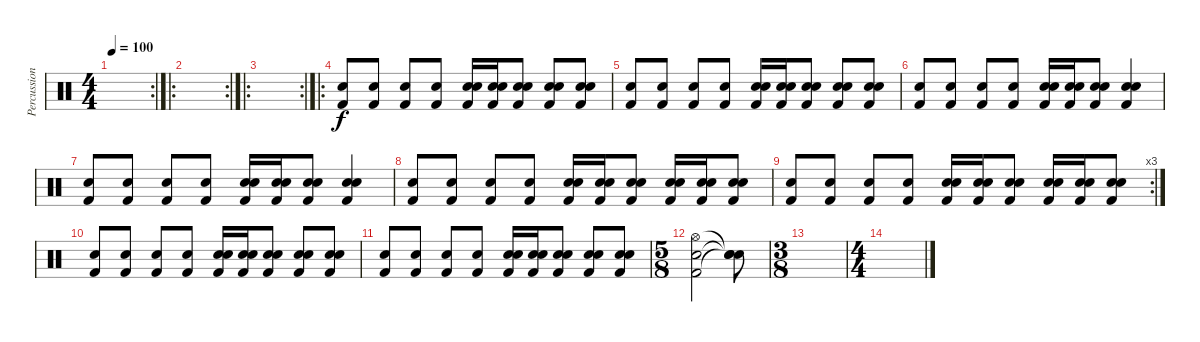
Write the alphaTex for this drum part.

\track ("Percussion" "Percussion") {instrument percussion}
\staff {score}
\articulation defaults
\rc 2
\ts (4 4)
\tempo 100
\clef neutral
\ks c
|
\ro
\rc 2
|
\ro
\rc 2
|
\ro
("Kick (hit) 2" "Snare (hit) 2").8 ("Kick (hit) 2" "Snare (hit) 2").8 ("Kick (hit) 2" "Snare (hit) 2").8 ("Kick (hit) 2" "Snare (hit) 2").8 ("Snare (hit) 2" "Electric Snare (hit)" "Kick (hit) 2").16 ("Snare (hit) 2" "Electric Snare (hit)" "Kick (hit) 2").16 ("Snare (hit) 2" "Electric Snare (hit)" "Kick (hit) 2").8 ("Snare (hit) 2" "Electric Snare (hit)" "Kick (hit) 2").8 ("Snare (hit) 2" "Electric Snare (hit)" "Kick (hit) 2").8 |
("Kick (hit) 2" "Snare (hit) 2").8 ("Kick (hit) 2" "Snare (hit) 2").8 ("Kick (hit) 2" "Snare (hit) 2").8 ("Kick (hit) 2" "Snare (hit) 2").8 ("Snare (hit) 2" "Electric Snare (hit)" "Kick (hit) 2").16 ("Snare (hit) 2" "Electric Snare (hit)" "Kick (hit) 2").16 ("Snare (hit) 2" "Electric Snare (hit)" "Kick (hit) 2").8 ("Snare (hit) 2" "Electric Snare (hit)" "Kick (hit) 2").8 ("Snare (hit) 2" "Electric Snare (hit)" "Kick (hit) 2").8 |
("Kick (hit) 2" "Snare (hit) 2").8 ("Kick (hit) 2" "Snare (hit) 2").8 ("Kick (hit) 2" "Snare (hit) 2").8 ("Kick (hit) 2" "Snare (hit) 2").8 ("Snare (hit) 2" "Electric Snare (hit)" "Kick (hit) 2").16 ("Snare (hit) 2" "Electric Snare (hit)" "Kick (hit) 2").16 ("Snare (hit) 2" "Electric Snare (hit)" "Kick (hit) 2").8 ("Snare (hit) 2" "Electric Snare (hit)" "Kick (hit) 2").4 |
("Kick (hit) 2" "Snare (hit) 2").8 ("Kick (hit) 2" "Snare (hit) 2").8 ("Kick (hit) 2" "Snare (hit) 2").8 ("Kick (hit) 2" "Snare (hit) 2").8 ("Snare (hit) 2" "Electric Snare (hit)" "Kick (hit) 2").16 ("Snare (hit) 2" "Electric Snare (hit)" "Kick (hit) 2").16 ("Snare (hit) 2" "Electric Snare (hit)" "Kick (hit) 2").8 ("Snare (hit) 2" "Electric Snare (hit)" "Kick (hit) 2").4 |
("Kick (hit) 2" "Snare (hit) 2").8 ("Kick (hit) 2" "Snare (hit) 2").8 ("Kick (hit) 2" "Snare (hit) 2").8 ("Kick (hit) 2" "Snare (hit) 2").8 ("Snare (hit) 2" "Electric Snare (hit)" "Kick (hit) 2").16 ("Snare (hit) 2" "Electric Snare (hit)" "Kick (hit) 2").16 ("Snare (hit) 2" "Electric Snare (hit)" "Kick (hit) 2").8 ("Snare (hit) 2" "Electric Snare (hit)" "Kick (hit) 2").16 ("Snare (hit) 2" "Electric Snare (hit)" "Kick (hit) 2").16 ("Snare (hit) 2" "Electric Snare (hit)" "Kick (hit) 2").8 |
\rc 3
("Kick (hit) 2" "Snare (hit) 2").8 ("Kick (hit) 2" "Snare (hit) 2").8 ("Kick (hit) 2" "Snare (hit) 2").8 ("Kick (hit) 2" "Snare (hit) 2").8 ("Snare (hit) 2" "Electric Snare (hit)" "Kick (hit) 2").16 ("Snare (hit) 2" "Electric Snare (hit)" "Kick (hit) 2").16 ("Snare (hit) 2" "Electric Snare (hit)" "Kick (hit) 2").8 ("Snare (hit) 2" "Electric Snare (hit)" "Kick (hit) 2").16 ("Snare (hit) 2" "Electric Snare (hit)" "Kick (hit) 2").16 ("Snare (hit) 2" "Electric Snare (hit)" "Kick (hit) 2").8 |
("Kick (hit) 2" "Snare (hit) 2").8 ("Kick (hit) 2" "Snare (hit) 2").8 ("Kick (hit) 2" "Snare (hit) 2").8 ("Kick (hit) 2" "Snare (hit) 2").8 ("Snare (hit) 2" "Electric Snare (hit)" "Kick (hit) 2").16 ("Snare (hit) 2" "Electric Snare (hit)" "Kick (hit) 2").16 ("Snare (hit) 2" "Electric Snare (hit)" "Kick (hit) 2").8 ("Snare (hit) 2" "Electric Snare (hit)" "Kick (hit) 2").8 ("Snare (hit) 2" "Electric Snare (hit)" "Kick (hit) 2").8 |
("Kick (hit) 2" "Snare (hit) 2").8 ("Kick (hit) 2" "Snare (hit) 2").8 ("Kick (hit) 2" "Snare (hit) 2").8 ("Kick (hit) 2" "Snare (hit) 2").8 ("Snare (hit) 2" "Electric Snare (hit)" "Kick (hit) 2").16 ("Snare (hit) 2" "Electric Snare (hit)" "Kick (hit) 2").16 ("Snare (hit) 2" "Electric Snare (hit)" "Kick (hit) 2").8 ("Snare (hit) 2" "Electric Snare (hit)" "Kick (hit) 2").8 ("Snare (hit) 2" "Electric Snare (hit)" "Kick (hit) 2").8 |
\ts (5 8)
("Snare (hit) 2" "Hi-Hat (open)" "Kick (hit) 2").2 ("Snare (hit)"{t} "Snare (hit)"{t} "Snare (hit)"{t}).8 |
\ts (3 8)
|
\ts (4 4)
